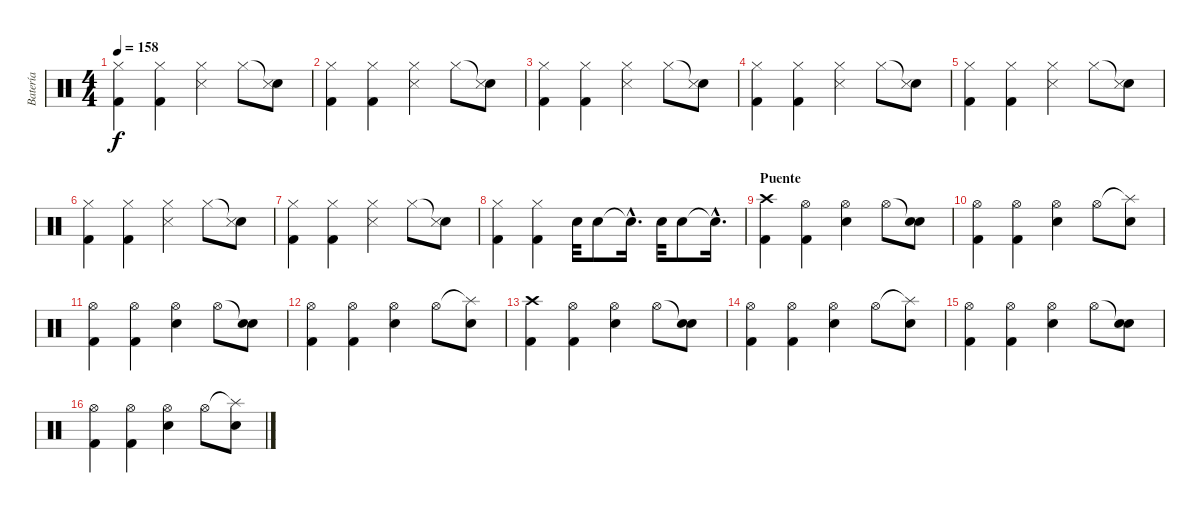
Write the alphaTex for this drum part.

\track ("Batería" "Batería") {instrument percussion}
\staff {score}
\articulation defaults
\ts (4 4)
\tempo 158
\clef neutral
\ks c
("Hi-Hat (closed)" "Kick (hit) 2").4{dy f} ("Hi-Hat (closed)" "Kick (hit) 2").4 ("Hi-Hat (closed)" "Snare (side stick) 3").4 "Hi-Hat (closed)".8 ("Snare (hit)"{t} "Snare (side stick) 3").8 |
("Hi-Hat (closed)" "Kick (hit) 2").4 ("Hi-Hat (closed)" "Kick (hit) 2").4 ("Hi-Hat (closed)" "Snare (side stick) 3").4 "Hi-Hat (closed)".8 ("Snare (hit)"{t} "Snare (side stick) 3").8 |
("Hi-Hat (closed)" "Kick (hit) 2").4 ("Hi-Hat (closed)" "Kick (hit) 2").4 ("Hi-Hat (closed)" "Snare (side stick) 3").4 "Hi-Hat (closed)".8 ("Snare (hit)"{t} "Snare (side stick) 3").8 |
("Hi-Hat (closed)" "Kick (hit) 2").4 ("Hi-Hat (closed)" "Kick (hit) 2").4 ("Hi-Hat (closed)" "Snare (side stick) 3").4 "Hi-Hat (closed)".8 ("Snare (hit)"{t} "Snare (side stick) 3").8 |
("Hi-Hat (closed)" "Kick (hit) 2").4 ("Hi-Hat (closed)" "Kick (hit) 2").4 ("Hi-Hat (closed)" "Snare (side stick) 3").4 "Hi-Hat (closed)".8 ("Snare (hit)"{t} "Snare (side stick) 3").8 |
("Hi-Hat (closed)" "Kick (hit) 2").4 ("Hi-Hat (closed)" "Kick (hit) 2").4 ("Hi-Hat (closed)" "Snare (side stick) 3").4 "Hi-Hat (closed)".8 ("Snare (hit)"{t} "Snare (side stick) 3").8 |
("Hi-Hat (closed)" "Kick (hit) 2").4 ("Hi-Hat (closed)" "Kick (hit) 2").4 ("Hi-Hat (closed)" "Snare (side stick) 3").4 "Hi-Hat (closed)".8 ("Snare (hit)"{t} "Snare (side stick) 3").8 |
("Hi-Hat (closed)" "Kick (hit) 2").4 ("Hi-Hat (closed)" "Kick (hit) 2").4 "Electric Snare (hit)".32 "Electric Snare (hit)".8 "Snare (hit)"{hac t}.16{d} "Electric Snare (hit)".32 "Electric Snare (hit)".8 "Snare (hit)"{hac t}.16{d} |
\section ("" "Puente")
("Crash high (hit)" "Kick (hit) 2").4 ("Hi-Hat (open)" "Kick (hit) 2").4 ("Hi-Hat (open)" "Electric Snare (hit)").4 "Hi-Hat (open)".8 ("Snare (hit)"{t} "Electric Snare (hit)").8 |
("Hi-Hat (open)" "Kick (hit) 2").4 ("Hi-Hat (open)" "Kick (hit) 2").4 ("Hi-Hat (open)" "Electric Snare (hit)").4 "Hi-Hat (open)".8 ("Splash (hit)"{t} "Electric Snare (hit)").8 |
("Hi-Hat (open)" "Kick (hit) 2").4 ("Hi-Hat (open)" "Kick (hit) 2").4 ("Hi-Hat (open)" "Electric Snare (hit)").4 "Hi-Hat (open)".8 ("Snare (hit)"{t} "Electric Snare (hit)").8 |
("Hi-Hat (open)" "Kick (hit) 2").4 ("Hi-Hat (open)" "Kick (hit) 2").4 ("Hi-Hat (open)" "Electric Snare (hit)").4 "Hi-Hat (open)".8 ("Splash (hit)"{t} "Electric Snare (hit)").8 |
("Crash high (hit)" "Kick (hit) 2").4 ("Hi-Hat (open)" "Kick (hit) 2").4 ("Hi-Hat (open)" "Electric Snare (hit)").4 "Hi-Hat (open)".8 ("Snare (hit)"{t} "Electric Snare (hit)").8 |
("Hi-Hat (open)" "Kick (hit) 2").4 ("Hi-Hat (open)" "Kick (hit) 2").4 ("Hi-Hat (open)" "Electric Snare (hit)").4 "Hi-Hat (open)".8 ("Splash (hit)"{t} "Electric Snare (hit)").8 |
("Hi-Hat (open)" "Kick (hit) 2").4 ("Hi-Hat (open)" "Kick (hit) 2").4 ("Hi-Hat (open)" "Electric Snare (hit)").4 "Hi-Hat (open)".8 ("Snare (hit)"{t} "Electric Snare (hit)").8 |
("Hi-Hat (open)" "Kick (hit) 2").4 ("Hi-Hat (open)" "Kick (hit) 2").4 ("Hi-Hat (open)" "Electric Snare (hit)").4 "Hi-Hat (open)".8 ("Splash (hit)"{t} "Electric Snare (hit)").8
